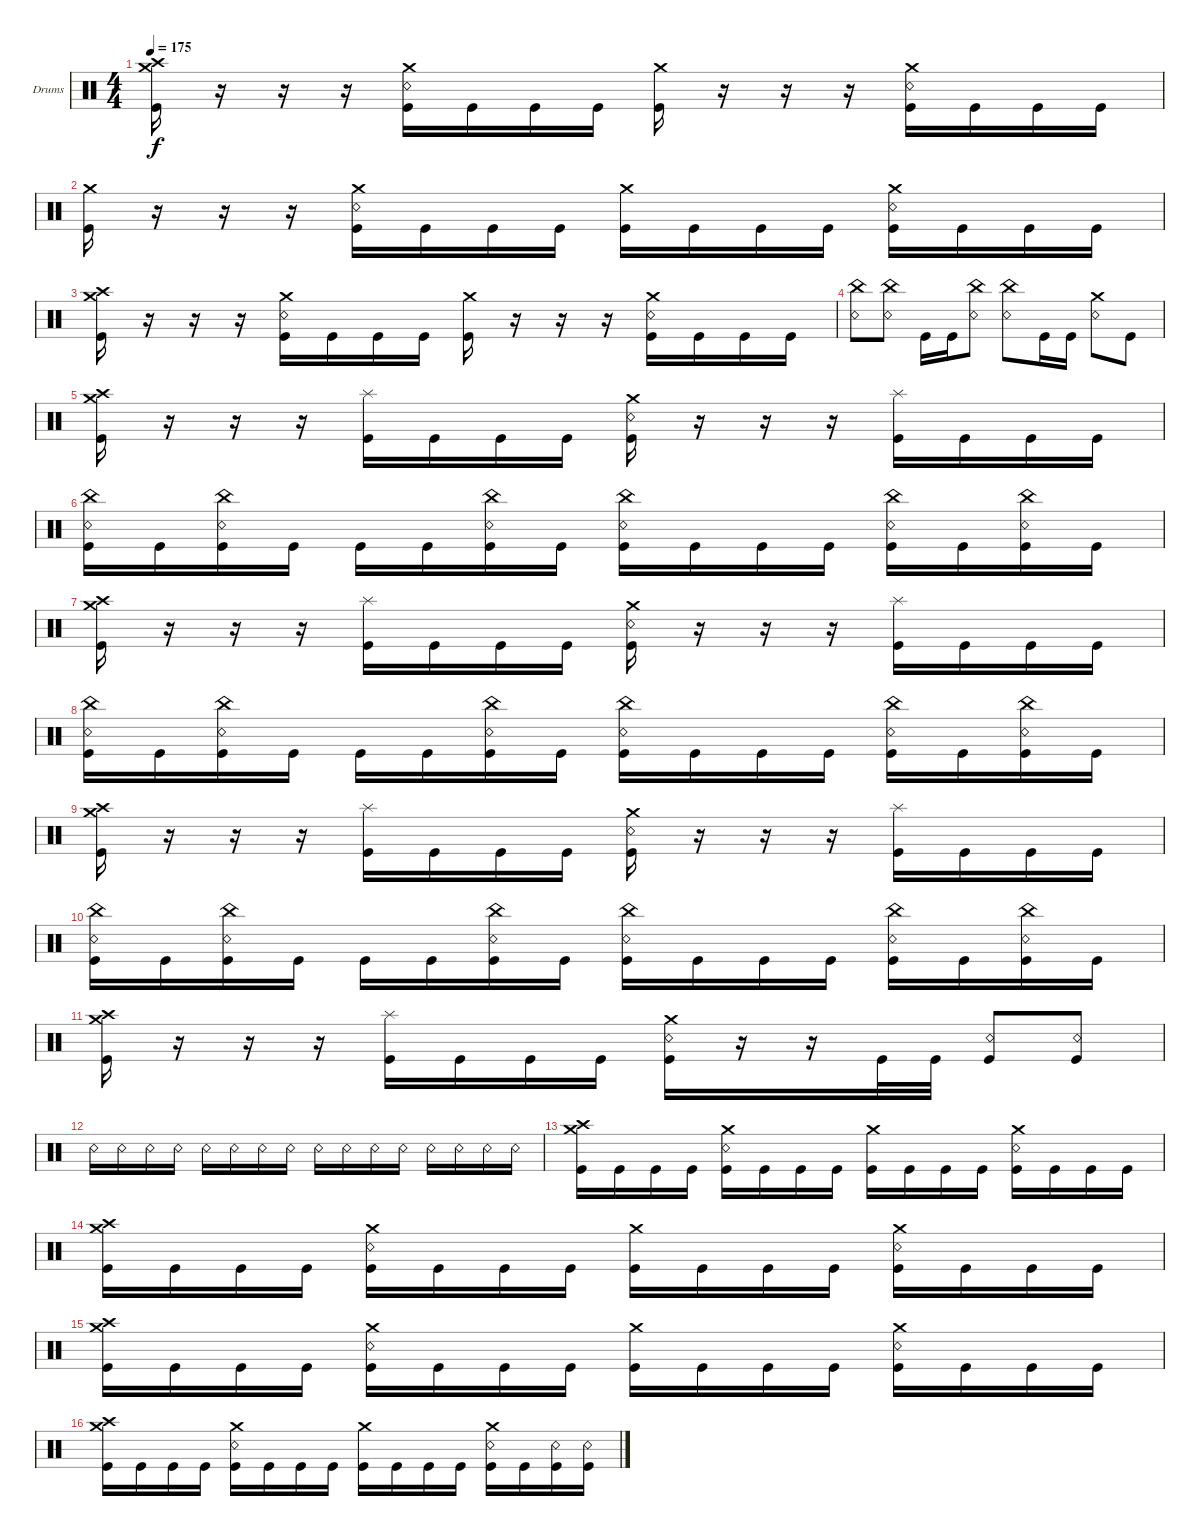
\bracketExtendMode groupsimilarinstruments
\firstSystemTrackNameOrientation horizontal
\otherSystemsTrackNameOrientation horizontal
\track ("Drumkit" "Drums") {instrument percussion}
\staff {score}
\articulation defaults
\ts (4 4)
\tempo 175
\clef neutral
\ks c
("Crash high (hit)" "Crash medium (hit)" "Kick (hit)").16{dy f} r.16 r.16 r.16 ("Crash medium (hit)" "Snare (rim shot)" "Kick (hit)").16 "Kick (hit)".16 "Kick (hit)".16 "Kick (hit)".16 ("Crash medium (hit)" "Kick (hit)").16 r.16 r.16 r.16 ("Crash medium (hit)" "Snare (rim shot)" "Kick (hit)").16 "Kick (hit)".16 "Kick (hit)".16 "Kick (hit)".16 |
("Crash medium (hit)" "Kick (hit)").16 r.16 r.16 r.16 ("Crash medium (hit)" "Snare (rim shot)" "Kick (hit)").16 "Kick (hit)".16 "Kick (hit)".16 "Kick (hit)".16 ("Crash medium (hit)" "Kick (hit)").16 "Kick (hit)".16 "Kick (hit)".16 "Kick (hit)".16 ("Crash medium (hit)" "Snare (rim shot)" "Kick (hit)").16 "Kick (hit)".16 "Kick (hit)".16 "Kick (hit)".16 |
("Crash high (hit)" "Crash medium (hit)" "Kick (hit)").16 r.16 r.16 r.16 ("Crash medium (hit)" "Snare (rim shot)" "Kick (hit)").16 "Kick (hit)".16 "Kick (hit)".16 "Kick (hit)".16 ("Crash medium (hit)" "Kick (hit)").16 r.16 r.16 r.16 ("Crash medium (hit)" "Snare (rim shot)" "Kick (hit)").16 "Kick (hit)".16 "Kick (hit)".16 "Kick (hit)".16 |
("China (hit)" "Snare (rim shot)").8 ("China (hit)" "Snare (rim shot)").8 "Kick (hit)".16 "Kick (hit)".16 ("China (hit)" "Snare (rim shot)").8 ("China (hit)" "Snare (rim shot)").8 "Kick (hit)".16 "Kick (hit)".16 ("Crash medium (hit)" "Snare (rim shot)").8 "Kick (hit)".8 |
("Crash high (hit)" "Crash medium (hit)" "Kick (hit)").16 r.16 r.16 r.16 ("Splash (hit)" "Kick (hit)").16 "Kick (hit)".16 "Kick (hit)".16 "Kick (hit)".16 ("Crash medium (hit)" "Snare (rim shot)" "Kick (hit)").16 r.16 r.16 r.16 ("Splash (hit)" "Kick (hit)").16 "Kick (hit)".16 "Kick (hit)".16 "Kick (hit)".16 |
("China (hit)" "Snare (rim shot)" "Kick (hit)").16 "Kick (hit)".16 ("China (hit)" "Snare (rim shot)" "Kick (hit)").16 "Kick (hit)".16 "Kick (hit)".16 "Kick (hit)".16 ("China (hit)" "Snare (rim shot)" "Kick (hit)").16 "Kick (hit)".16 ("China (hit)" "Snare (rim shot)" "Kick (hit)").16 "Kick (hit)".16 "Kick (hit)".16 "Kick (hit)".16 ("China (hit)" "Snare (rim shot)" "Kick (hit)").16 "Kick (hit)".16 ("China (hit)" "Snare (rim shot)" "Kick (hit)").16 "Kick (hit)".16 |
("Crash high (hit)" "Crash medium (hit)" "Kick (hit)").16 r.16 r.16 r.16 ("Splash (hit)" "Kick (hit)").16 "Kick (hit)".16 "Kick (hit)".16 "Kick (hit)".16 ("Crash medium (hit)" "Snare (rim shot)" "Kick (hit)").16 r.16 r.16 r.16 ("Splash (hit)" "Kick (hit)").16 "Kick (hit)".16 "Kick (hit)".16 "Kick (hit)".16 |
("China (hit)" "Snare (rim shot)" "Kick (hit)").16 "Kick (hit)".16 ("China (hit)" "Snare (rim shot)" "Kick (hit)").16 "Kick (hit)".16 "Kick (hit)".16 "Kick (hit)".16 ("China (hit)" "Snare (rim shot)" "Kick (hit)").16 "Kick (hit)".16 ("China (hit)" "Snare (rim shot)" "Kick (hit)").16 "Kick (hit)".16 "Kick (hit)".16 "Kick (hit)".16 ("China (hit)" "Snare (rim shot)" "Kick (hit)").16 "Kick (hit)".16 ("China (hit)" "Snare (rim shot)" "Kick (hit)").16 "Kick (hit)".16 |
("Crash high (hit)" "Crash medium (hit)" "Kick (hit)").16 r.16 r.16 r.16 ("Splash (hit)" "Kick (hit)").16 "Kick (hit)".16 "Kick (hit)".16 "Kick (hit)".16 ("Crash medium (hit)" "Snare (rim shot)" "Kick (hit)").16 r.16 r.16 r.16 ("Splash (hit)" "Kick (hit)").16 "Kick (hit)".16 "Kick (hit)".16 "Kick (hit)".16 |
("China (hit)" "Snare (rim shot)" "Kick (hit)").16 "Kick (hit)".16 ("China (hit)" "Snare (rim shot)" "Kick (hit)").16 "Kick (hit)".16 "Kick (hit)".16 "Kick (hit)".16 ("China (hit)" "Snare (rim shot)" "Kick (hit)").16 "Kick (hit)".16 ("China (hit)" "Snare (rim shot)" "Kick (hit)").16 "Kick (hit)".16 "Kick (hit)".16 "Kick (hit)".16 ("China (hit)" "Snare (rim shot)" "Kick (hit)").16 "Kick (hit)".16 ("China (hit)" "Snare (rim shot)" "Kick (hit)").16 "Kick (hit)".16 |
("Crash high (hit)" "Crash medium (hit)" "Kick (hit)").16 r.16 r.16 r.16 ("Splash (hit)" "Kick (hit)").16 "Kick (hit)".16 "Kick (hit)".16 "Kick (hit)".16 ("Crash medium (hit)" "Snare (rim shot)" "Kick (hit)").16 r.16 r.16 "Kick (hit)".32 "Kick (hit)".32 ("Snare (rim shot)" "Kick (hit)").8 ("Snare (rim shot)" "Kick (hit)").8 |
"Snare (rim shot)".16 "Snare (rim shot)".16 "Snare (rim shot)".16 "Snare (rim shot)".16 "Snare (rim shot)".16 "Snare (rim shot)".16 "Snare (rim shot)".16 "Snare (rim shot)".16 "Snare (rim shot)".16 "Snare (rim shot)".16 "Snare (rim shot)".16 "Snare (rim shot)".16 "Snare (rim shot)".16 "Snare (rim shot)".16 "Snare (rim shot)".16 "Snare (rim shot)".16 |
("Crash high (hit)" "Crash medium (hit)" "Kick (hit)").16 "Kick (hit)".16 "Kick (hit)".16 "Kick (hit)".16 ("Crash medium (hit)" "Snare (rim shot)" "Kick (hit)").16 "Kick (hit)".16 "Kick (hit)".16 "Kick (hit)".16 ("Crash medium (hit)" "Kick (hit)").16 "Kick (hit)".16 "Kick (hit)".16 "Kick (hit)".16 ("Crash medium (hit)" "Snare (rim shot)" "Kick (hit)").16 "Kick (hit)".16 "Kick (hit)".16 "Kick (hit)".16 |
("Crash high (hit)" "Crash medium (hit)" "Kick (hit)").16 "Kick (hit)".16 "Kick (hit)".16 "Kick (hit)".16 ("Crash medium (hit)" "Snare (rim shot)" "Kick (hit)").16 "Kick (hit)".16 "Kick (hit)".16 "Kick (hit)".16 ("Crash medium (hit)" "Kick (hit)").16 "Kick (hit)".16 "Kick (hit)".16 "Kick (hit)".16 ("Crash medium (hit)" "Snare (rim shot)" "Kick (hit)").16 "Kick (hit)".16 "Kick (hit)".16 "Kick (hit)".16 |
("Crash high (hit)" "Crash medium (hit)" "Kick (hit)").16 "Kick (hit)".16 "Kick (hit)".16 "Kick (hit)".16 ("Crash medium (hit)" "Snare (rim shot)" "Kick (hit)").16 "Kick (hit)".16 "Kick (hit)".16 "Kick (hit)".16 ("Crash medium (hit)" "Kick (hit)").16 "Kick (hit)".16 "Kick (hit)".16 "Kick (hit)".16 ("Crash medium (hit)" "Snare (rim shot)" "Kick (hit)").16 "Kick (hit)".16 "Kick (hit)".16 "Kick (hit)".16 |
("Crash high (hit)" "Crash medium (hit)" "Kick (hit)").16 "Kick (hit)".16 "Kick (hit)".16 "Kick (hit)".16 ("Crash medium (hit)" "Snare (rim shot)" "Kick (hit)").16 "Kick (hit)".16 "Kick (hit)".16 "Kick (hit)".16 ("Crash medium (hit)" "Kick (hit)").16 "Kick (hit)".16 "Kick (hit)".16 "Kick (hit)".16 ("Crash medium (hit)" "Snare (rim shot)" "Kick (hit)").16 "Kick (hit)".16 ("Snare (rim shot)" "Kick (hit)").16 ("Snare (rim shot)" "Kick (hit)").16
